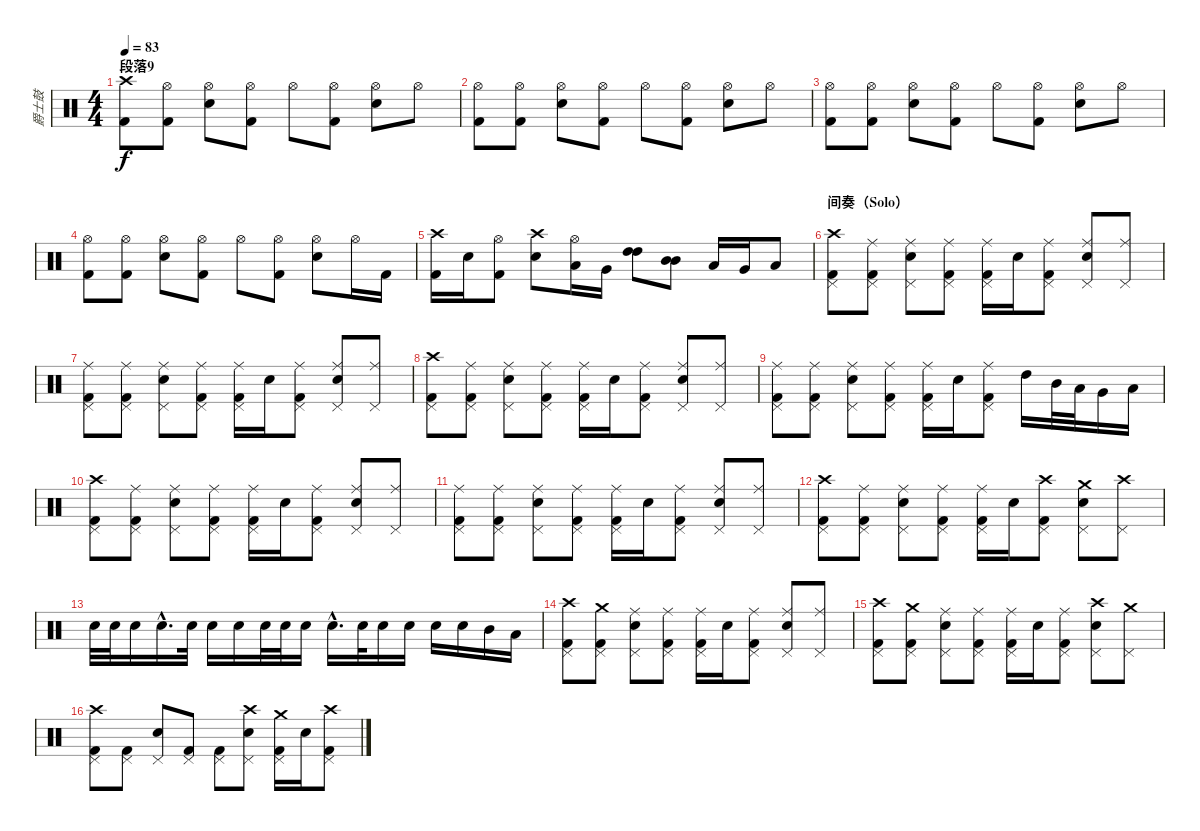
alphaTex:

\track ("爵士鼓" "爵士鼓") {instrument percussion}
\staff {score}
\articulation defaults
\ts (4 4)
\section ("" "段落9")
\tempo 83
\clef neutral
\ks c
("Crash high (hit)" "Kick (hit) 2").8{dy f} ("Hi-Hat (open)" "Kick (hit) 2").8 ("Hi-Hat (open)" "Electric Snare (hit)").8 ("Hi-Hat (open)" "Kick (hit) 2").8 "Hi-Hat (open)".8 ("Hi-Hat (open)" "Kick (hit) 2").8 ("Hi-Hat (open)" "Electric Snare (hit)").8 "Hi-Hat (open)".8 |
("Hi-Hat (open)" "Kick (hit) 2").8 ("Hi-Hat (open)" "Kick (hit) 2").8 ("Hi-Hat (open)" "Electric Snare (hit)").8 ("Hi-Hat (open)" "Kick (hit) 2").8 "Hi-Hat (open)".8 ("Hi-Hat (open)" "Kick (hit) 2").8 ("Hi-Hat (open)" "Electric Snare (hit)").8 "Hi-Hat (open)".8 |
("Hi-Hat (open)" "Kick (hit) 2").8 ("Hi-Hat (open)" "Kick (hit) 2").8 ("Hi-Hat (open)" "Electric Snare (hit)").8 ("Hi-Hat (open)" "Kick (hit) 2").8 "Hi-Hat (open)".8 ("Hi-Hat (open)" "Kick (hit) 2").8 ("Hi-Hat (open)" "Electric Snare (hit)").8 "Hi-Hat (open)".8 |
("Hi-Hat (open)" "Kick (hit) 2").8 ("Hi-Hat (open)" "Kick (hit) 2").8 ("Hi-Hat (open)" "Electric Snare (hit)").8 ("Hi-Hat (open)" "Kick (hit) 2").8 "Hi-Hat (open)".8 ("Hi-Hat (open)" "Kick (hit) 2").8 ("Hi-Hat (open)" "Electric Snare (hit)").8 "Hi-Hat (open)".16 "Kick (hit) 2".16 |
("Crash high (hit)" "Kick (hit) 2").16 "Electric Snare (hit)".16 ("Hi-Hat (open)" "Kick (hit) 2").8 ("Crash high (hit)" "Electric Snare (hit)").8 ("Hi-Hat (open)" "Low Tom (hit)").16 "Very Low Tom (hit)".16 ("High Tom (hit)" "High Tom (hit)").8 ("Mid Tom (hit)" "Mid Tom (hit)").8 "Low Tom (hit)".16 "Very Low Tom (hit)".16 "Low Floor Tom (hit)".8 |
\section ("" "间奏（Solo）")
("Crash high (hit)" "Pedal Hi-Hat (hit)" "Kick (hit) 2").8 ("Ride (middle)" "Pedal Hi-Hat (hit)" "Kick (hit) 2").8 ("Ride (middle)" "Pedal Hi-Hat (hit)" "Electric Snare (hit)").8 ("Ride (middle)" "Pedal Hi-Hat (hit)" "Kick (hit) 2").8 ("Ride (middle)" "Pedal Hi-Hat (hit)" "Kick (hit) 2").16 "Electric Snare (hit)".16 ("Ride (middle)" "Pedal Hi-Hat (hit)" "Kick (hit) 2").8 ("Ride (middle)" "Pedal Hi-Hat (hit)" "Electric Snare (hit)").8 ("Ride (middle)" "Pedal Hi-Hat (hit)").8 |
("Ride (middle)" "Pedal Hi-Hat (hit)" "Kick (hit) 2").8 ("Ride (middle)" "Pedal Hi-Hat (hit)" "Kick (hit) 2").8 ("Ride (middle)" "Pedal Hi-Hat (hit)" "Electric Snare (hit)").8 ("Ride (middle)" "Pedal Hi-Hat (hit)" "Kick (hit) 2").8 ("Ride (middle)" "Pedal Hi-Hat (hit)" "Kick (hit) 2").16 "Electric Snare (hit)".16 ("Ride (middle)" "Pedal Hi-Hat (hit)" "Kick (hit) 2").8 ("Ride (middle)" "Pedal Hi-Hat (hit)" "Electric Snare (hit)").8 ("Ride (middle)" "Pedal Hi-Hat (hit)").8 |
("Crash high (hit)" "Pedal Hi-Hat (hit)" "Kick (hit) 2").8 ("Ride (middle)" "Pedal Hi-Hat (hit)" "Kick (hit) 2").8 ("Ride (middle)" "Pedal Hi-Hat (hit)" "Electric Snare (hit)").8 ("Ride (middle)" "Pedal Hi-Hat (hit)" "Kick (hit) 2").8 ("Ride (middle)" "Pedal Hi-Hat (hit)" "Kick (hit) 2").16 "Electric Snare (hit)".16 ("Ride (middle)" "Pedal Hi-Hat (hit)" "Kick (hit) 2").8 ("Ride (middle)" "Pedal Hi-Hat (hit)" "Electric Snare (hit)").8 ("Ride (middle)" "Pedal Hi-Hat (hit)").8 |
("Ride (middle)" "Pedal Hi-Hat (hit)" "Kick (hit) 2").8 ("Ride (middle)" "Pedal Hi-Hat (hit)" "Kick (hit) 2").8 ("Ride (middle)" "Pedal Hi-Hat (hit)" "Electric Snare (hit)").8 ("Ride (middle)" "Pedal Hi-Hat (hit)" "Kick (hit) 2").8 ("Ride (middle)" "Pedal Hi-Hat (hit)" "Kick (hit) 2").16 "Electric Snare (hit)".16 ("Ride (middle)" "Pedal Hi-Hat (hit)" "Kick (hit) 2").8 "High Tom (hit)".16 "Mid Tom (hit)".32 "Low Tom (hit)".32 "Very Low Tom (hit)".16 "Low Floor Tom (hit)".16 |
("Crash high (hit)" "Pedal Hi-Hat (hit)" "Kick (hit) 2").8 ("Ride (middle)" "Pedal Hi-Hat (hit)" "Kick (hit) 2").8 ("Ride (middle)" "Pedal Hi-Hat (hit)" "Electric Snare (hit)").8 ("Ride (middle)" "Pedal Hi-Hat (hit)" "Kick (hit) 2").8 ("Ride (middle)" "Pedal Hi-Hat (hit)" "Kick (hit) 2").16 "Electric Snare (hit)".16 ("Ride (middle)" "Pedal Hi-Hat (hit)" "Kick (hit) 2").8 ("Ride (middle)" "Pedal Hi-Hat (hit)" "Electric Snare (hit)").8 ("Ride (middle)" "Pedal Hi-Hat (hit)").8 |
("Ride (middle)" "Pedal Hi-Hat (hit)" "Kick (hit) 2").8 ("Ride (middle)" "Pedal Hi-Hat (hit)" "Kick (hit) 2").8 ("Ride (middle)" "Pedal Hi-Hat (hit)" "Electric Snare (hit)").8 ("Ride (middle)" "Pedal Hi-Hat (hit)" "Kick (hit) 2").8 ("Ride (middle)" "Pedal Hi-Hat (hit)" "Kick (hit) 2").16 "Electric Snare (hit)".16 ("Ride (middle)" "Pedal Hi-Hat (hit)" "Kick (hit) 2").8 ("Ride (middle)" "Pedal Hi-Hat (hit)" "Electric Snare (hit)").8 ("Ride (middle)" "Pedal Hi-Hat (hit)").8 |
("Crash high (hit)" "Pedal Hi-Hat (hit)" "Kick (hit) 2").8 ("Ride (middle)" "Pedal Hi-Hat (hit)" "Kick (hit) 2").8 ("Ride (middle)" "Pedal Hi-Hat (hit)" "Electric Snare (hit)").8 ("Ride (middle)" "Pedal Hi-Hat (hit)" "Kick (hit) 2").8 ("Ride (middle)" "Pedal Hi-Hat (hit)" "Kick (hit) 2").16 "Electric Snare (hit)".16 ("Crash high (hit)" "Pedal Hi-Hat (hit)" "Kick (hit) 2").8 ("Crash medium (hit)" "Pedal Hi-Hat (hit)" "Electric Snare (hit)").8 ("Crash high (hit)" "Pedal Hi-Hat (hit)").8 |
"Electric Snare (hit)".32 "Electric Snare (hit)".32 "Electric Snare (hit)".16 "Electric Snare (hit)"{hac}.16{d} "Electric Snare (hit)".32 "Electric Snare (hit)".16 "Electric Snare (hit)".16 "Electric Snare (hit)".32 "Electric Snare (hit)".32 "Electric Snare (hit)".16 "Electric Snare (hit)"{hac}.16{d} "Electric Snare (hit)".32 "Electric Snare (hit)".16 "Electric Snare (hit)".16 "Electric Snare (hit)".16 "Electric Snare (hit)".16 "Mid Tom (hit)".16 "Low Tom (hit)".16 |
("Crash high (hit)" "Pedal Hi-Hat (hit)" "Kick (hit) 2").8 ("Crash medium (hit)" "Pedal Hi-Hat (hit)" "Kick (hit) 2").8 ("Ride (middle)" "Pedal Hi-Hat (hit)" "Electric Snare (hit)").8 ("Ride (middle)" "Pedal Hi-Hat (hit)" "Kick (hit) 2").8 ("Ride (middle)" "Pedal Hi-Hat (hit)" "Kick (hit) 2").16 "Electric Snare (hit)".16 ("Ride (middle)" "Pedal Hi-Hat (hit)" "Kick (hit) 2").8 ("Ride (middle)" "Pedal Hi-Hat (hit)" "Electric Snare (hit)").8 ("Ride (middle)" "Pedal Hi-Hat (hit)").8 |
("Crash high (hit)" "Pedal Hi-Hat (hit)" "Kick (hit) 2").8 ("Crash medium (hit)" "Pedal Hi-Hat (hit)" "Kick (hit) 2").8 ("Ride (middle)" "Pedal Hi-Hat (hit)" "Electric Snare (hit)").8 ("Ride (middle)" "Pedal Hi-Hat (hit)" "Kick (hit) 2").8 ("Ride (middle)" "Pedal Hi-Hat (hit)" "Kick (hit) 2").16 "Electric Snare (hit)".16 ("Ride (middle)" "Pedal Hi-Hat (hit)" "Kick (hit) 2").8 ("Crash high (hit)" "Pedal Hi-Hat (hit)" "Electric Snare (hit)").8 ("Crash medium (hit)" "Pedal Hi-Hat (hit)").8 |
("Crash high (hit)" "Pedal Hi-Hat (hit)" "Kick (hit) 2").8 ("Pedal Hi-Hat (hit)" "Kick (hit) 2").8 ("Pedal Hi-Hat (hit)" "Electric Snare (hit)").8 ("Pedal Hi-Hat (hit)" "Kick (hit) 2").8 ("Pedal Hi-Hat (hit)" "Kick (hit) 2").8 ("Crash high (hit)" "Pedal Hi-Hat (hit)" "Electric Snare (hit)").8 ("Crash medium (hit)" "Pedal Hi-Hat (hit)" "Kick (hit) 2").16 "Electric Snare (hit)".16 ("Crash high (hit)" "Pedal Hi-Hat (hit)" "Kick (hit) 2").8
